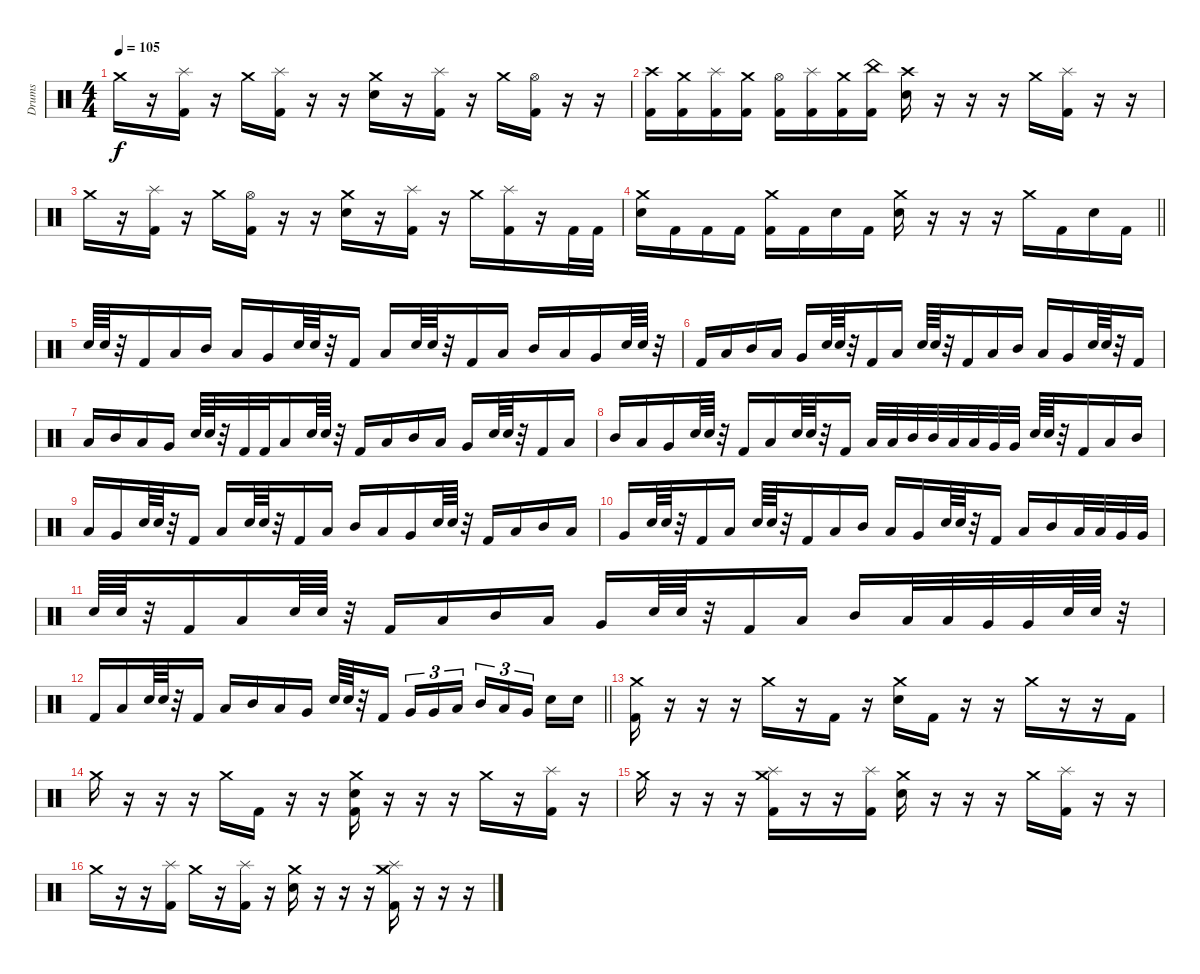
\track ("Drums" "Drums") {instrument percussion}
\staff {score}
\articulation defaults
\ts (4 4)
\tempo 105
\clef neutral
\ks c "Crash medium (hit)".16{dy f}
r.16 ("Splash (hit)" "Kick (hit) 2").16 r.16 "Crash medium (hit)".16 ("Splash (hit)" "Kick (hit) 2").16 r.16 r.16 ("Crash medium (hit)" "Electric Snare (hit)").16 r.16 ("Splash (hit)" "Kick (hit) 2").16 r.16 "Crash medium (hit)".16 ("Hi-Hat (open)" "Kick (hit) 2").16 r.16 r.16 |
("Crash high (hit)" "Kick (hit) 2").16 ("Crash medium (hit)" "Kick (hit) 2").16 ("Splash (hit)" "Kick (hit) 2").16 ("Crash medium (hit)" "Kick (hit) 2").16 ("Hi-Hat (open)" "Kick (hit) 2").16 ("Splash (hit)" "Kick (hit) 2").16 ("Crash medium (hit)" "Kick (hit) 2").16 ("China (hit)" "Kick (hit) 2").16 ("Crash high (hit)" "Electric Snare (hit)").16 r.16 r.16 r.16 "Crash medium (hit)".16 ("Splash (hit)" "Kick (hit) 2").16 r.16 r.16 |
"Crash medium (hit)".16 r.16 ("Splash (hit)" "Kick (hit) 2").16 r.16 "Crash medium (hit)".16 ("Hi-Hat (open)" "Kick (hit) 2").16 r.16 r.16 ("Crash medium (hit)" "Electric Snare (hit)").16 r.16 ("Splash (hit)" "Kick (hit) 2").16 r.16 "Crash medium (hit)".16 ("Splash (hit)" "Kick (hit) 2").16 r.16 "Kick (hit) 2".32 "Kick (hit) 2".32 |
\barLineRight lightlight
("Crash medium (hit)" "Electric Snare (hit)").16 "Kick (hit) 2".16 "Kick (hit) 2".16 "Kick (hit) 2".16 ("Crash medium (hit)" "Kick (hit) 2").16 "Kick (hit) 2".16 "Electric Snare (hit)".16 "Kick (hit) 2".16 ("Crash medium (hit)" "Electric Snare (hit)").16 r.16 r.16 r.16 "Crash medium (hit)".16 "Kick (hit) 2".16 "Electric Snare (hit)".16 "Kick (hit) 2".16 |
\section ("" "")
"Electric Snare (hit)".64 "Electric Snare (hit)".64 r.32 "Kick (hit) 2".16 "Low Tom (hit)".16 "Mid Tom (hit)".16 "Low Tom (hit)".16 "Very Low Tom (hit)".16 "Electric Snare (hit)".64 "Electric Snare (hit)".64 r.32 "Kick (hit) 2".16 "Low Tom (hit)".16 "Electric Snare (hit)".64 "Electric Snare (hit)".64 r.32 "Kick (hit) 2".16 "Low Tom (hit)".16 "Mid Tom (hit)".16 "Low Tom (hit)".16 "Very Low Tom (hit)".16 "Electric Snare (hit)".64 "Electric Snare (hit)".64 r.32 |
"Kick (hit) 2".16 "Low Tom (hit)".16 "Mid Tom (hit)".16 "Low Tom (hit)".16 "Very Low Tom (hit)".16 "Electric Snare (hit)".64 "Electric Snare (hit)".64 r.32 "Kick (hit) 2".16 "Low Tom (hit)".16 "Electric Snare (hit)".64 "Electric Snare (hit)".64 r.32 "Kick (hit) 2".16 "Low Tom (hit)".16 "Mid Tom (hit)".16 "Low Tom (hit)".16 "Very Low Tom (hit)".16 "Electric Snare (hit)".64 "Electric Snare (hit)".64 r.32 "Kick (hit) 2".16 |
"Low Tom (hit)".16 "Mid Tom (hit)".16 "Low Tom (hit)".16 "Very Low Tom (hit)".16 "Electric Snare (hit)".64 "Electric Snare (hit)".64 r.32 "Kick (hit) 2".32 "Kick (hit) 2".32 "Low Tom (hit)".16 "Electric Snare (hit)".64 "Electric Snare (hit)".64 r.32 "Kick (hit) 2".16 "Low Tom (hit)".16 "Mid Tom (hit)".16 "Low Tom (hit)".16 "Very Low Tom (hit)".16 "Electric Snare (hit)".64 "Electric Snare (hit)".64 r.32 "Kick (hit) 2".16 "Low Tom (hit)".16 |
"Mid Tom (hit)".16 "Low Tom (hit)".16 "Very Low Tom (hit)".16 "Electric Snare (hit)".64 "Electric Snare (hit)".64 r.32 "Kick (hit) 2".16 "Low Tom (hit)".16 "Electric Snare (hit)".64 "Electric Snare (hit)".64 r.32 "Kick (hit) 2".16 "Low Tom (hit)".32 "Low Tom (hit)".32 "Mid Tom (hit)".32 "Mid Tom (hit)".32 "Low Tom (hit)".32 "Low Tom (hit)".32 "Very Low Tom (hit)".32 "Very Low Tom (hit)".32 "Electric Snare (hit)".64 "Electric Snare (hit)".64 r.32 "Kick (hit) 2".16 "Low Tom (hit)".16 "Mid Tom (hit)".16 |
"Low Tom (hit)".16 "Very Low Tom (hit)".16 "Electric Snare (hit)".64 "Electric Snare (hit)".64 r.32 "Kick (hit) 2".16 "Low Tom (hit)".16 "Electric Snare (hit)".64 "Electric Snare (hit)".64 r.32 "Kick (hit) 2".16 "Low Tom (hit)".16 "Mid Tom (hit)".16 "Low Tom (hit)".16 "Very Low Tom (hit)".16 "Electric Snare (hit)".64 "Electric Snare (hit)".64 r.32 "Kick (hit) 2".16 "Low Tom (hit)".16 "Mid Tom (hit)".16 "Low Tom (hit)".16 |
"Very Low Tom (hit)".16 "Electric Snare (hit)".64 "Electric Snare (hit)".64 r.32 "Kick (hit) 2".16 "Low Tom (hit)".16 "Electric Snare (hit)".64 "Electric Snare (hit)".64 r.32 "Kick (hit) 2".16 "Low Tom (hit)".16 "Mid Tom (hit)".16 "Low Tom (hit)".16 "Very Low Tom (hit)".16 "Electric Snare (hit)".64 "Electric Snare (hit)".64 r.32 "Kick (hit) 2".16 "Low Tom (hit)".16 "Mid Tom (hit)".16 "Low Tom (hit)".32 "Low Tom (hit)".32 "Very Low Tom (hit)".32 "Very Low Tom (hit)".32 |
"Electric Snare (hit)".64 "Electric Snare (hit)".64 r.32 "Kick (hit) 2".16 "Low Tom (hit)".16 "Electric Snare (hit)".64 "Electric Snare (hit)".64 r.32 "Kick (hit) 2".16 "Low Tom (hit)".16 "Mid Tom (hit)".16 "Low Tom (hit)".16 "Very Low Tom (hit)".16 "Electric Snare (hit)".64 "Electric Snare (hit)".64 r.32 "Kick (hit) 2".16 "Low Tom (hit)".16 "Mid Tom (hit)".16 "Low Tom (hit)".32 "Low Tom (hit)".32 "Very Low Tom (hit)".32 "Very Low Tom (hit)".32 "Electric Snare (hit)".64 "Electric Snare (hit)".64 r.32 |
\barLineRight lightlight "Kick (hit) 2".16 "Low Tom (hit)".16 "Electric Snare (hit)".64 "Electric Snare (hit)".64
r.32 "Kick (hit) 2".16 "Low Tom (hit)".16 "Mid Tom (hit)".16 "Low Tom (hit)".16 "Very Low Tom (hit)".16 "Electric Snare (hit)".64 "Electric Snare (hit)".64 r.32 "Kick (hit) 2".16 "Very Low Tom (hit)".16{tu (3 2)} "Very Low Tom (hit)".16{tu (3 2)} "Low Tom (hit)".16{tu (3 2)} "Mid Tom (hit)".16{tu (3 2)} "Low Tom (hit)".16{tu (3 2)} "Very Low Tom (hit)".16{tu (3 2)} "Electric Snare (hit)".16 "Electric Snare (hit)".16 |
\section ("" "")
("Crash medium (hit)" "Kick (hit) 2").16 r.16 r.16 r.16 "Crash medium (hit)".16 r.16 "Kick (hit) 2".16 r.16 ("Crash medium (hit)" "Electric Snare (hit)").16 "Kick (hit) 2".16 r.16 r.16 "Crash medium (hit)".16 r.16 r.16 "Kick (hit) 2".16 |
"Crash medium (hit)".16 r.16 r.16 r.16 "Crash medium (hit)".16 "Kick (hit) 2".16 r.16 r.16 ("Crash medium (hit)" "Electric Snare (hit)" "Kick (hit) 2").16 r.16 r.16 r.16 "Crash medium (hit)".16 r.16 ("Splash (hit)" "Kick (hit) 2").16 r.16 |
"Crash medium (hit)".16 r.16 r.16 r.16 ("Splash (hit)" "Crash medium (hit)" "Kick (hit) 2").16 r.16 r.16 ("Splash (hit)" "Kick (hit) 2").16 ("Crash medium (hit)" "Electric Snare (hit)").16 r.16 r.16 r.16 "Crash medium (hit)".16 ("Splash (hit)" "Kick (hit) 2").16 r.16 r.16 |
"Crash medium (hit)".16 r.16 r.16 ("Splash (hit)" "Kick (hit) 2").16 "Crash medium (hit)".16 r.16 ("Splash (hit)" "Kick (hit) 2").16 r.16 ("Crash medium (hit)" "Electric Snare (hit)").16 r.16 r.16 r.16 ("Splash (hit)" "Crash medium (hit)" "Kick (hit) 2").16 r.16 r.16 r.16
